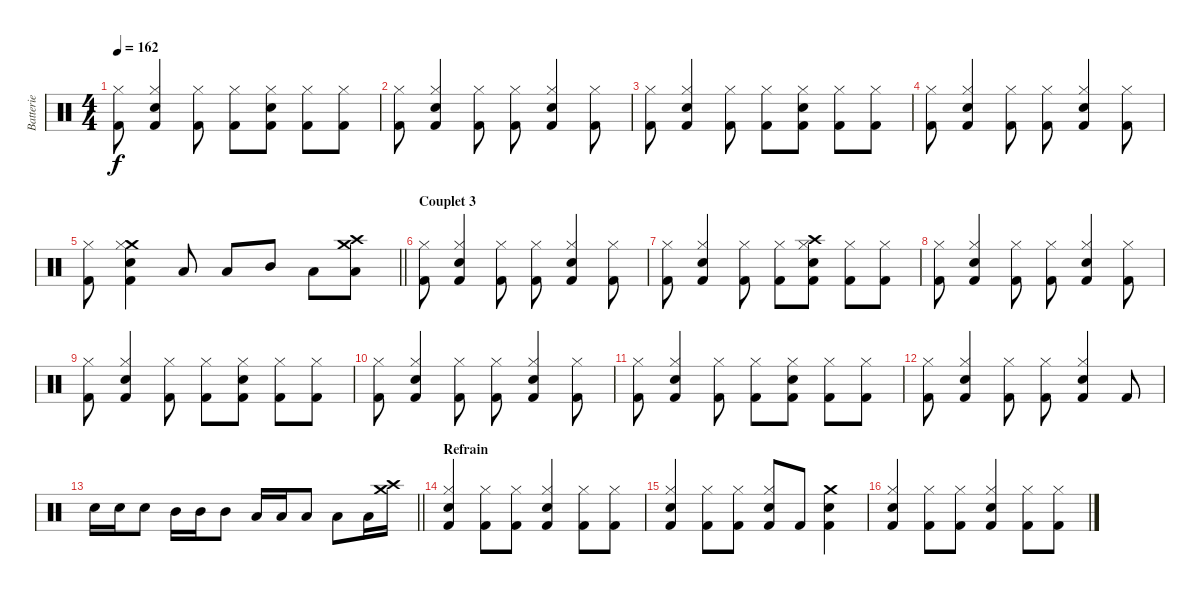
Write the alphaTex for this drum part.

\track ("Batterie" "Batterie") {instrument percussion}
\staff {score}
\articulation defaults
\ts (4 4)
\tempo 162
\clef neutral
\ks c
("Kick (hit) 2" "Hi-Hat (closed)").8{dy f} ("Kick (hit) 2" "Snare (hit) 2" "Hi-Hat (closed)").4 ("Kick (hit) 2" "Hi-Hat (closed)").8 ("Kick (hit) 2" "Hi-Hat (closed)").8 ("Kick (hit) 2" "Snare (hit) 2" "Hi-Hat (closed)").8 ("Kick (hit) 2" "Hi-Hat (closed)").8 ("Kick (hit) 2" "Hi-Hat (closed)").8 |
("Kick (hit) 2" "Hi-Hat (closed)").8 ("Kick (hit) 2" "Snare (hit) 2" "Hi-Hat (closed)").4 ("Kick (hit) 2" "Hi-Hat (closed)").8 ("Kick (hit) 2" "Hi-Hat (closed)").8 ("Kick (hit) 2" "Snare (hit) 2" "Hi-Hat (closed)").4 ("Kick (hit) 2" "Hi-Hat (closed)").8 |
("Kick (hit) 2" "Hi-Hat (closed)").8 ("Kick (hit) 2" "Snare (hit) 2" "Hi-Hat (closed)").4 ("Kick (hit) 2" "Hi-Hat (closed)").8 ("Kick (hit) 2" "Hi-Hat (closed)").8 ("Kick (hit) 2" "Snare (hit) 2" "Hi-Hat (closed)").8 ("Kick (hit) 2" "Hi-Hat (closed)").8 ("Kick (hit) 2" "Hi-Hat (closed)").8 |
("Kick (hit) 2" "Hi-Hat (closed)").8 ("Kick (hit) 2" "Snare (hit) 2" "Hi-Hat (closed)").4 ("Kick (hit) 2" "Hi-Hat (closed)").8 ("Kick (hit) 2" "Hi-Hat (closed)").8 ("Kick (hit) 2" "Snare (hit) 2" "Hi-Hat (closed)").4 ("Kick (hit) 2" "Hi-Hat (closed)").8 |
\barLineRight lightlight
("Kick (hit) 2" "Hi-Hat (closed)").8 ("Kick (hit) 2" "Snare (hit) 2" "Crash medium (hit)" "Hi-Hat (closed)").4 "Low Tom (hit)".8 "Low Tom (hit)".8 "Mid Tom (hit)".8 "Low Tom (hit)".8 ("Low Floor Tom (hit)" "Crash medium (hit)" "Crash high (hit)").8 |
\section ("" "Couplet 3")
("Kick (hit) 2" "Hi-Hat (closed)").8 ("Kick (hit) 2" "Snare (hit) 2" "Hi-Hat (closed)").4 ("Kick (hit) 2" "Hi-Hat (closed)").8 ("Kick (hit) 2" "Hi-Hat (closed)").8 ("Kick (hit) 2" "Snare (hit) 2" "Hi-Hat (closed)").4 ("Kick (hit) 2" "Hi-Hat (closed)").8 |
("Kick (hit) 2" "Hi-Hat (closed)").8 ("Kick (hit) 2" "Snare (hit) 2" "Hi-Hat (closed)").4 ("Kick (hit) 2" "Hi-Hat (closed)").8 ("Kick (hit) 2" "Hi-Hat (closed)").8 ("Kick (hit) 2" "Snare (hit) 2" "Crash high (hit)" "Hi-Hat (closed)").8 ("Kick (hit) 2" "Hi-Hat (closed)").8 ("Kick (hit) 2" "Hi-Hat (closed)").8 |
("Kick (hit) 2" "Hi-Hat (closed)").8 ("Kick (hit) 2" "Snare (hit) 2" "Hi-Hat (closed)").4 ("Kick (hit) 2" "Hi-Hat (closed)").8 ("Kick (hit) 2" "Hi-Hat (closed)").8 ("Kick (hit) 2" "Snare (hit) 2" "Hi-Hat (closed)").4 ("Kick (hit) 2" "Hi-Hat (closed)").8 |
("Kick (hit) 2" "Hi-Hat (closed)").8 ("Kick (hit) 2" "Snare (hit) 2" "Hi-Hat (closed)").4 ("Kick (hit) 2" "Hi-Hat (closed)").8 ("Kick (hit) 2" "Hi-Hat (closed)").8 ("Kick (hit) 2" "Snare (hit) 2" "Hi-Hat (closed)").8 ("Kick (hit) 2" "Hi-Hat (closed)").8 ("Kick (hit) 2" "Hi-Hat (closed)").8 |
("Kick (hit) 2" "Hi-Hat (closed)").8 ("Kick (hit) 2" "Snare (hit) 2" "Hi-Hat (closed)").4 ("Kick (hit) 2" "Hi-Hat (closed)").8 ("Kick (hit) 2" "Hi-Hat (closed)").8 ("Kick (hit) 2" "Snare (hit) 2" "Hi-Hat (closed)").4 ("Kick (hit) 2" "Hi-Hat (closed)").8 |
("Kick (hit) 2" "Hi-Hat (closed)").8 ("Kick (hit) 2" "Snare (hit) 2" "Hi-Hat (closed)").4 ("Kick (hit) 2" "Hi-Hat (closed)").8 ("Kick (hit) 2" "Hi-Hat (closed)").8 ("Kick (hit) 2" "Snare (hit) 2" "Hi-Hat (closed)").8 ("Kick (hit) 2" "Hi-Hat (closed)").8 ("Kick (hit) 2" "Hi-Hat (closed)").8 |
("Kick (hit) 2" "Hi-Hat (closed)").8 ("Kick (hit) 2" "Snare (hit) 2" "Hi-Hat (closed)").4 ("Kick (hit) 2" "Hi-Hat (closed)").8 ("Kick (hit) 2" "Hi-Hat (closed)").8 ("Kick (hit) 2" "Snare (hit) 2" "Hi-Hat (closed)").4 "Kick (hit) 2".8 |
\barLineRight lightlight "Snare (hit) 2".16 "Snare (hit) 2".16 "Snare (hit) 2".8 "Mid Tom (hit)".16 "Mid Tom (hit)".16 "Mid Tom (hit)".8 "Low Tom (hit)".16 "Low Tom (hit)".16 "Low Tom (hit)".8 "Low Tom (hit)".8 "Low Tom (hit)".16
("Crash medium (hit)" "Crash high (hit)").16 |
\section ("" "Refrain ")
("Kick (hit) 2" "Snare (hit) 2" "Hi-Hat (closed)").4 ("Kick (hit) 2" "Hi-Hat (closed)").8 ("Kick (hit) 2" "Hi-Hat (closed)").8 ("Kick (hit) 2" "Snare (hit) 2" "Hi-Hat (closed)").4 ("Kick (hit) 2" "Hi-Hat (closed)").8 ("Kick (hit) 2" "Hi-Hat (closed)").8 |
("Kick (hit) 2" "Snare (hit) 2" "Hi-Hat (closed)").4 ("Kick (hit) 2" "Hi-Hat (closed)").8 ("Kick (hit) 2" "Hi-Hat (closed)").8 ("Kick (hit) 2" "Snare (hit) 2" "Hi-Hat (closed)").8 "Kick (hit) 2".8 ("Kick (hit) 2" "Snare (hit) 2" "Crash medium (hit)").4 |
("Kick (hit) 2" "Snare (hit) 2" "Hi-Hat (closed)").4 ("Kick (hit) 2" "Hi-Hat (closed)").8 ("Kick (hit) 2" "Hi-Hat (closed)").8 ("Kick (hit) 2" "Snare (hit) 2" "Hi-Hat (closed)").4 ("Kick (hit) 2" "Hi-Hat (closed)").8 ("Kick (hit) 2" "Hi-Hat (closed)").8
